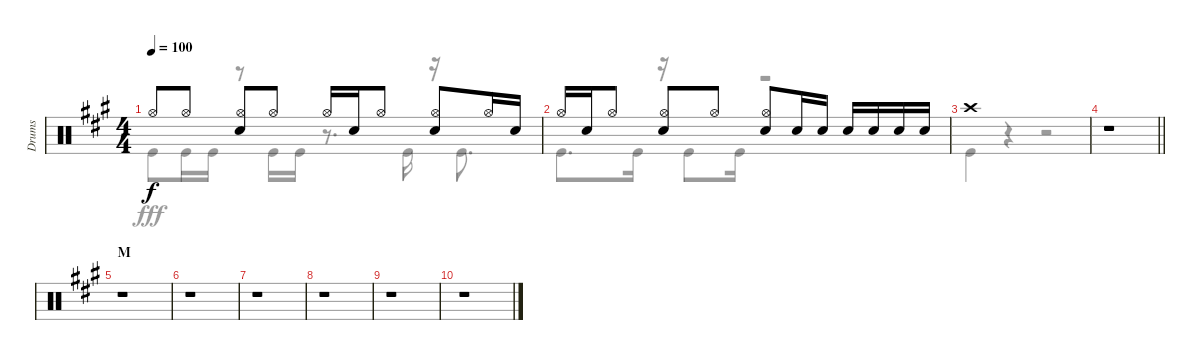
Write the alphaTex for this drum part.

\track ("Drums" "Drums") {instrument percussion}
\staff {score}
\articulation defaults
\voice
\ts (4 4)
\tempo 100
\clef neutral
\ks a "Hi-Hat (open)".8{dy f} "Hi-Hat (open)".8
("Hi-Hat (open)" "Snare (hit) 2").8 "Hi-Hat (open)".8 "Hi-Hat (open)".16 "Snare (hit) 2".16 "Hi-Hat (open)".8 ("Hi-Hat (open)" "Snare (hit) 2").8 "Hi-Hat (open)".16 "Snare (hit) 2".16 |
"Hi-Hat (open)".16 "Snare (hit) 2".16 "Hi-Hat (open)".8 ("Hi-Hat (open)" "Snare (hit) 2").8 "Hi-Hat (open)".8 ("Hi-Hat (open)" "Snare (hit) 2").8 "Snare (hit) 2".16 "Snare (hit) 2".16 "Snare (hit) 2".16 "Snare (hit) 2".16 "Snare (hit) 2".16 "Snare (hit) 2".16 |
"Crash high (hit)".1 |
\barLineRight lightlight
r.1 |
\section ("" "M")
r.1 |
r.1 |
r.1 |
r.1 |
r.1 |
r.1
\voice
\clef neutral
\ottava regular
\simile none
\ks a "Kick (hit)".8{dy fff} "Kick (hit)".16 "Kick (hit)".16
r.8 "Kick (hit)".16 "Kick (hit)".16 r.8{d} "Kick (hit)".16 r.16 "Kick (hit)".8{d} |
"Kick (hit)".8{d} "Kick (hit)".16 r.16 "Kick (hit)".8 "Kick (hit)".16 r.2 |
"Kick (hit)".4 r.4 r.2 |
\barLineRight lightlight
r.1 |
r.1 |
r.1 |
r.1 |
r.1 |
r.1 |
r.1
